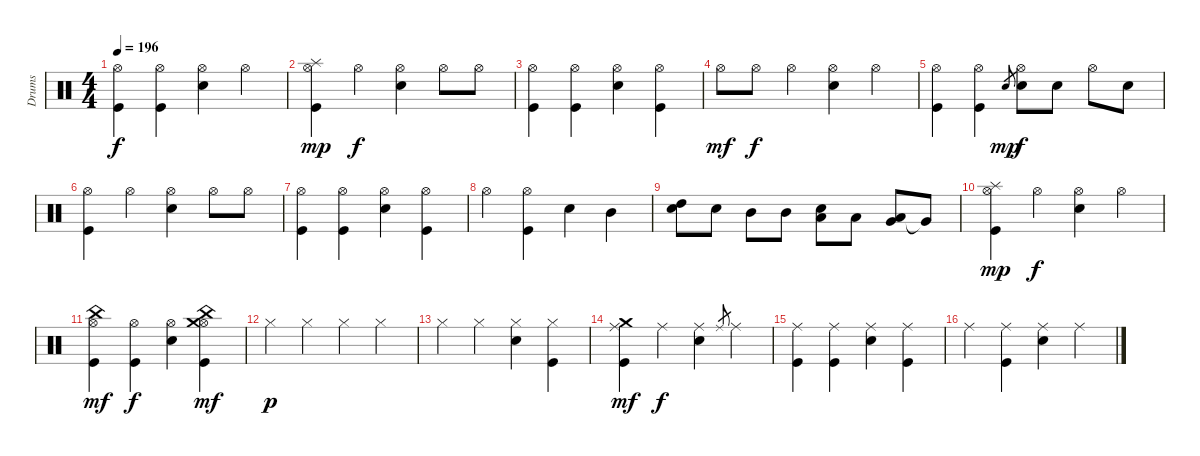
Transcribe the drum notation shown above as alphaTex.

\track ("Drums" "Drums") {instrument percussion}
\staff {score}
\articulation defaults
\ts (4 4)
\tempo 196
\clef neutral
\ks c
("Hi-Hat (open)" "Kick (hit)").4{dy f} ("Hi-Hat (open)" "Kick (hit)").4 ("Hi-Hat (open)" "Electric Snare (hit)").4 "Hi-Hat (open)".4 |
("Splash (hit)" "Hi-Hat (open)" "Kick (hit)").4{dy mp} "Hi-Hat (open)".4{dy f} ("Hi-Hat (open)" "Electric Snare (hit)").4 "Hi-Hat (open)".8 "Hi-Hat (open)".8 |
("Hi-Hat (open)" "Kick (hit)").4 ("Hi-Hat (open)" "Kick (hit)").4 ("Hi-Hat (open)" "Electric Snare (hit)").4 ("Hi-Hat (open)" "Kick (hit)").4 |
"Hi-Hat (open)".8{dy mf} "Hi-Hat (open)".8{dy f} "Hi-Hat (open)".4 ("Hi-Hat (open)" "Electric Snare (hit)").4 "Hi-Hat (open)".4 |
("Hi-Hat (open)" "Kick (hit)").4 ("Hi-Hat (open)" "Kick (hit)").4 "Electric Snare (hit)".8{gr dy mp} ("Hi-Hat (open)" "Electric Snare (hit)").8{dy f} "Electric Snare (hit)".8 "Hi-Hat (open)".8 "Electric Snare (hit)".8 |
("Hi-Hat (open)" "Kick (hit)").4 "Hi-Hat (open)".4 ("Hi-Hat (open)" "Electric Snare (hit)").4 "Hi-Hat (open)".8 "Hi-Hat (open)".8 |
("Hi-Hat (open)" "Kick (hit)").4 ("Hi-Hat (open)" "Kick (hit)").4 ("Hi-Hat (open)" "Electric Snare (hit)").4 ("Hi-Hat (open)" "Kick (hit)").4 |
"Hi-Hat (open)".4 ("Hi-Hat (open)" "Kick (hit)").4 "Electric Snare (hit)".4 "Mid Tom (hit)".4 |
("High Tom (hit)" "Electric Snare (hit)").8 "Electric Snare (hit)".8 "Mid Tom (hit)".8 "Mid Tom (hit)".8 ("Low Tom (hit)" "Electric Snare (hit)").8 "Low Tom (hit)".8 ("Low Tom (hit)" "Very Low Tom (hit)").8 "Very Low Tom (hit)"{t}.8 |
("Splash (hit)" "Hi-Hat (open)" "Kick (hit)").4{dy mp} "Hi-Hat (open)".4{dy f} ("Hi-Hat (open)" "Electric Snare (hit)").4 "Hi-Hat (open)".4 |
("China (hit)" "Hi-Hat (open)" "Kick (hit)").4{dy mf} ("Hi-Hat (open)" "Kick (hit)").4{dy f} ("Hi-Hat (open)" "Electric Snare (hit)").4 ("China (hit)" "Hi-Hat (open)" "Crash medium (hit)" "Kick (hit)").4{dy mf} |
"Hi-Hat (closed)".4{dy p} "Hi-Hat (closed)".4 "Hi-Hat (closed)".4 "Hi-Hat (closed)".4 |
"Hi-Hat (closed)".4 "Hi-Hat (closed)".4 ("Hi-Hat (closed)" "Electric Snare (hit)").4 ("Hi-Hat (closed)" "Kick (hit)").4 |
("Crash medium (hit)" "Ride (middle)" "Kick (hit)").4{dy mf} "Ride (middle)".4{dy f} ("Ride (middle)" "Electric Snare (hit)").4 "Ride (middle)".8{gr} "Ride (middle)".4 |
("Ride (middle)" "Kick (hit)").4 ("Ride (middle)" "Kick (hit)").4 ("Ride (middle)" "Electric Snare (hit)").4 ("Ride (middle)" "Kick (hit)").4 |
"Ride (middle)".4 ("Ride (middle)" "Kick (hit)").4 ("Ride (middle)" "Electric Snare (hit)").4 "Ride (middle)".4
